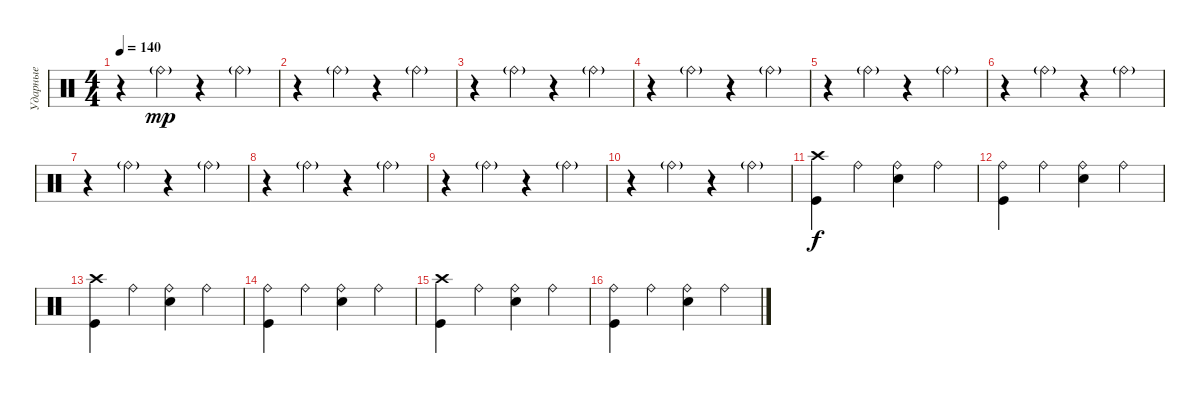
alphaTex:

\track ("Ударные" "Ударные") {instrument percussion}
\staff {score}
\articulation defaults
\ts (4 4)
\tempo 140
\clef neutral
\ks c
r.4{dy mp} "Ride (bell)"{g}.4 r.4 "Ride (bell)"{g}.4 |
r.4 "Ride (bell)"{g}.4 r.4 "Ride (bell)"{g}.4 |
r.4 "Ride (bell)"{g}.4 r.4 "Ride (bell)"{g}.4 |
r.4 "Ride (bell)"{g}.4 r.4 "Ride (bell)"{g}.4 |
r.4 "Ride (bell)"{g}.4 r.4 "Ride (bell)"{g}.4 |
r.4 "Ride (bell)"{g}.4 r.4 "Ride (bell)"{g}.4 |
r.4 "Ride (bell)"{g}.4 r.4 "Ride (bell)"{g}.4 |
r.4 "Ride (bell)"{g}.4 r.4 "Ride (bell)"{g}.4 |
r.4 "Ride (bell)"{g}.4 r.4 "Ride (bell)"{g}.4 |
r.4 "Ride (bell)"{g}.4 r.4 "Ride (bell)"{g}.4 |
("Crash high (hit)" "Kick (hit)").4{dy f} "Ride (bell)".4 ("Ride (bell)" "Electric Snare (hit)").4 "Ride (bell)".4 |
("Ride (bell)" "Kick (hit)").4 "Ride (bell)".4 ("Ride (bell)" "Electric Snare (hit)").4 "Ride (bell)".4 |
("Crash high (hit)" "Kick (hit)").4 "Ride (bell)".4 ("Ride (bell)" "Electric Snare (hit)").4 "Ride (bell)".4 |
("Ride (bell)" "Kick (hit)").4 "Ride (bell)".4 ("Ride (bell)" "Electric Snare (hit)").4 "Ride (bell)".4 |
("Crash high (hit)" "Kick (hit)").4 "Ride (bell)".4 ("Ride (bell)" "Electric Snare (hit)").4 "Ride (bell)".4 |
("Ride (bell)" "Kick (hit)").4 "Ride (bell)".4 ("Ride (bell)" "Electric Snare (hit)").4 "Ride (bell)".4
